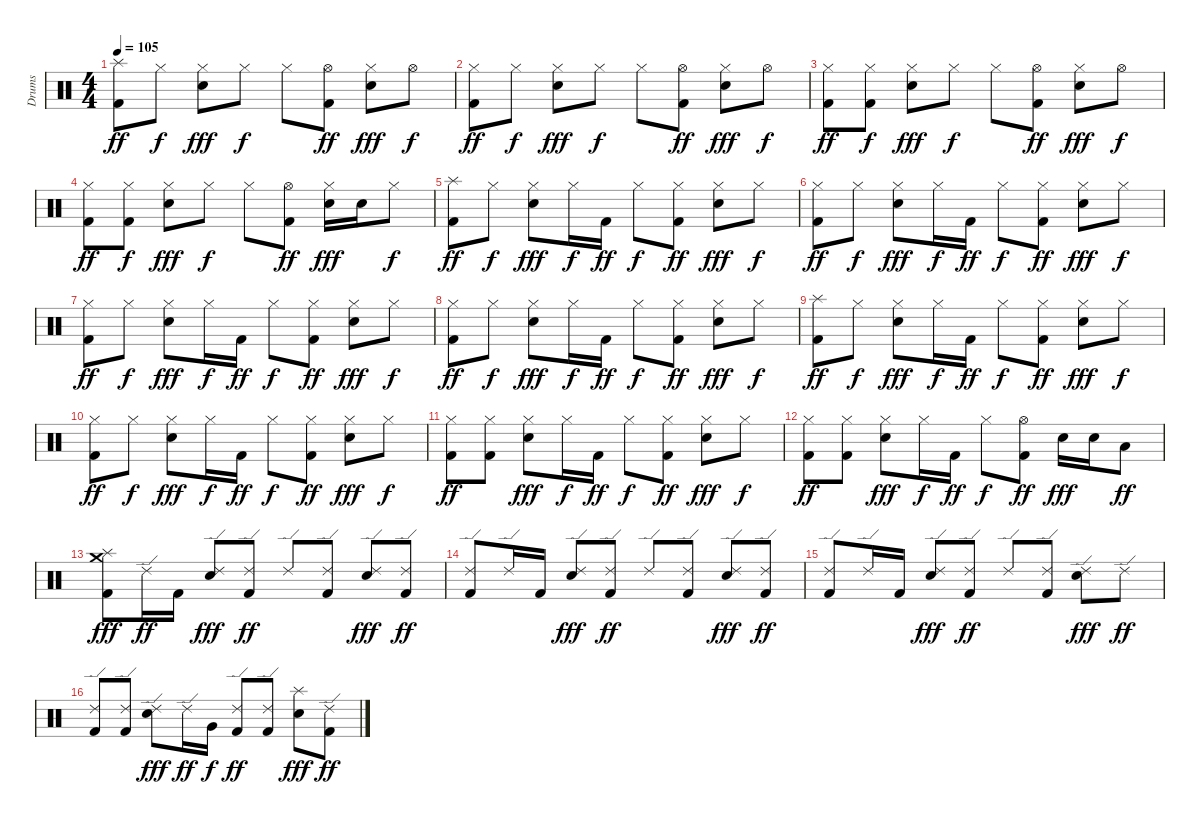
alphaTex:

\track ("Drums" "Drums") {instrument percussion}
\staff {score}
\articulation defaults
\ts (4 4)
\tempo 105
\clef neutral
\ks c
("Splash (hit)" "Kick (hit) 2").8{dy ff} "Hi-Hat (closed)".8{dy f} ("Hi-Hat (closed)" "Electric Snare (hit)").8{dy fff} "Hi-Hat (closed)".8{dy f} "Hi-Hat (closed)".8 ("Hi-Hat (open)" "Kick (hit) 2").8{dy ff} ("Hi-Hat (closed)" "Electric Snare (hit)").8{dy fff} "Hi-Hat (open)".8{dy f} |
("Hi-Hat (closed)" "Kick (hit) 2").8{dy ff} "Hi-Hat (closed)".8{dy f} ("Hi-Hat (closed)" "Electric Snare (hit)").8{dy fff} "Hi-Hat (closed)".8{dy f} "Hi-Hat (closed)".8 ("Hi-Hat (open)" "Kick (hit) 2").8{dy ff} ("Hi-Hat (closed)" "Electric Snare (hit)").8{dy fff} "Hi-Hat (open)".8{dy f} |
("Hi-Hat (closed)" "Kick (hit) 2").8{dy ff} ("Hi-Hat (closed)" "Kick (hit) 2").8{dy f} ("Hi-Hat (closed)" "Electric Snare (hit)").8{dy fff} "Hi-Hat (closed)".8{dy f} "Hi-Hat (closed)".8 ("Hi-Hat (open)" "Kick (hit) 2").8{dy ff} ("Hi-Hat (closed)" "Electric Snare (hit)").8{dy fff} "Hi-Hat (open)".8{dy f} |
("Hi-Hat (closed)" "Kick (hit) 2").8{dy ff} ("Hi-Hat (closed)" "Kick (hit) 2").8{dy f} ("Hi-Hat (closed)" "Electric Snare (hit)").8{dy fff} "Hi-Hat (closed)".8{dy f} "Hi-Hat (closed)".8 ("Hi-Hat (open)" "Kick (hit) 2").8{dy ff} ("Hi-Hat (closed)" "Electric Snare (hit)").16{dy fff} "Electric Snare (hit)".16 "Hi-Hat (closed)".8{dy f} |
("Splash (hit)" "Kick (hit) 2").8{dy ff} "Hi-Hat (closed)".8{dy f} ("Hi-Hat (closed)" "Electric Snare (hit)").8{dy fff} "Hi-Hat (closed)".16{dy f} "Kick (hit) 2".16{dy ff} "Hi-Hat (closed)".8{dy f} ("Hi-Hat (closed)" "Kick (hit) 2").8{dy ff} ("Hi-Hat (closed)" "Electric Snare (hit)").8{dy fff} "Hi-Hat (closed)".8{dy f} |
("Hi-Hat (closed)" "Kick (hit) 2").8{dy ff} "Hi-Hat (closed)".8{dy f} ("Hi-Hat (closed)" "Electric Snare (hit)").8{dy fff} "Hi-Hat (closed)".16{dy f} "Kick (hit) 2".16{dy ff} "Hi-Hat (closed)".8{dy f} ("Hi-Hat (closed)" "Kick (hit) 2").8{dy ff} ("Hi-Hat (closed)" "Electric Snare (hit)").8{dy fff} "Hi-Hat (closed)".8{dy f} |
("Hi-Hat (closed)" "Kick (hit) 2").8{dy ff} "Hi-Hat (closed)".8{dy f} ("Hi-Hat (closed)" "Electric Snare (hit)").8{dy fff} "Hi-Hat (closed)".16{dy f} "Kick (hit) 2".16{dy ff} "Hi-Hat (closed)".8{dy f} ("Hi-Hat (closed)" "Kick (hit) 2").8{dy ff} ("Hi-Hat (closed)" "Electric Snare (hit)").8{dy fff} "Hi-Hat (closed)".8{dy f} |
("Hi-Hat (closed)" "Kick (hit) 2").8{dy ff} "Hi-Hat (closed)".8{dy f} ("Hi-Hat (closed)" "Electric Snare (hit)").8{dy fff} "Hi-Hat (closed)".16{dy f} "Kick (hit) 2".16{dy ff} "Hi-Hat (closed)".8{dy f} ("Hi-Hat (closed)" "Kick (hit) 2").8{dy ff} ("Hi-Hat (closed)" "Electric Snare (hit)").8{dy fff} "Hi-Hat (closed)".8{dy f} |
("Splash (hit)" "Kick (hit) 2").8{dy ff} "Hi-Hat (closed)".8{dy f} ("Hi-Hat (closed)" "Electric Snare (hit)").8{dy fff} "Hi-Hat (closed)".16{dy f} "Kick (hit) 2".16{dy ff} "Hi-Hat (closed)".8{dy f} ("Hi-Hat (closed)" "Kick (hit) 2").8{dy ff} ("Hi-Hat (closed)" "Electric Snare (hit)").8{dy fff} "Hi-Hat (closed)".8{dy f} |
("Hi-Hat (closed)" "Kick (hit) 2").8{dy ff} "Hi-Hat (closed)".8{dy f} ("Hi-Hat (closed)" "Electric Snare (hit)").8{dy fff} "Hi-Hat (closed)".16{dy f} "Kick (hit) 2".16{dy ff} "Hi-Hat (closed)".8{dy f} ("Hi-Hat (closed)" "Kick (hit) 2").8{dy ff} ("Hi-Hat (closed)" "Electric Snare (hit)").8{dy fff} "Hi-Hat (closed)".8{dy f} |
("Hi-Hat (closed)" "Kick (hit) 2").8{dy ff} ("Hi-Hat (closed)" "Kick (hit) 2").8 ("Hi-Hat (closed)" "Electric Snare (hit)").8{dy fff} "Hi-Hat (closed)".16{dy f} "Kick (hit) 2".16{dy ff} "Hi-Hat (closed)".8{dy f} ("Hi-Hat (closed)" "Kick (hit) 2").8{dy ff} ("Hi-Hat (closed)" "Electric Snare (hit)").8{dy fff} "Hi-Hat (closed)".8{dy f} |
("Hi-Hat (closed)" "Kick (hit) 2").8{dy ff} ("Hi-Hat (closed)" "Kick (hit) 2").8 ("Hi-Hat (closed)" "Electric Snare (hit)").8{dy fff} "Hi-Hat (closed)".16{dy f} "Kick (hit) 2".16{dy ff} "Hi-Hat (closed)".8{dy f} ("Hi-Hat (open)" "Kick (hit) 2").8{dy ff} "Electric Snare (hit)".16{dy fff} "Electric Snare (hit)".16 "Low Tom (hit)".8{dy ff} |
("Splash (hit)" "Crash medium (hit)" "Kick (hit) 2").8{dy fff} "Ride (edge) 2".16{dy ff} "Kick (hit) 2".16 ("Ride (edge) 2" "Electric Snare (hit)").8{dy fff} ("Ride (edge) 2" "Kick (hit) 2").8{dy ff} "Ride (edge) 2".8 ("Ride (edge) 2" "Kick (hit) 2").8 ("Ride (edge) 2" "Electric Snare (hit)").8{dy fff} ("Ride (edge) 2" "Kick (hit) 2").8{dy ff} |
("Ride (edge) 2" "Kick (hit) 2").8 "Ride (edge) 2".16 "Kick (hit) 2".16 ("Ride (edge) 2" "Electric Snare (hit)").8{dy fff} ("Ride (edge) 2" "Kick (hit) 2").8{dy ff} "Ride (edge) 2".8 ("Ride (edge) 2" "Kick (hit) 2").8 ("Ride (edge) 2" "Electric Snare (hit)").8{dy fff} ("Ride (edge) 2" "Kick (hit) 2").8{dy ff} |
("Ride (edge) 2" "Kick (hit) 2").8 "Ride (edge) 2".16 "Kick (hit) 2".16 ("Ride (edge) 2" "Electric Snare (hit)").8{dy fff} ("Ride (edge) 2" "Kick (hit) 2").8{dy ff} "Ride (edge) 2".8 ("Ride (edge) 2" "Kick (hit) 2").8 ("Ride (edge) 2" "Electric Snare (hit)").8{dy fff} "Ride (edge) 2".8{dy ff} |
("Ride (edge) 2" "Kick (hit) 2").8 ("Ride (edge) 2" "Kick (hit) 2").8 ("Ride (edge) 2" "Electric Snare (hit)").8{dy fff} "Ride (edge) 2".16{dy ff} "Very Low Tom (hit)".16{dy f} ("Ride (edge) 2" "Kick (hit) 2").8{dy ff} ("Ride (edge) 2" "Kick (hit) 2").8 ("Splash (hit)" "Electric Snare (hit)").8{dy fff} ("Ride (edge) 2" "Kick (hit) 2").8{dy ff}
